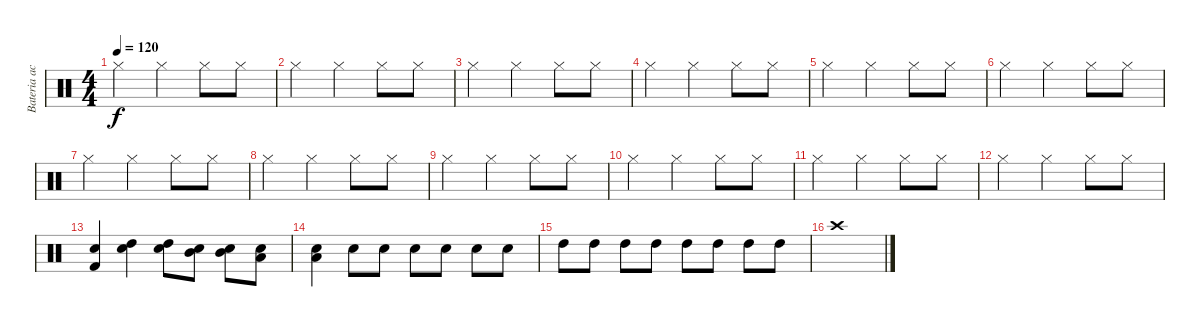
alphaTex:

\track ("Bateria acompanhamento" "Bateria ac") {instrument percussion}
\staff {score}
\articulation defaults
\ts (4 4)
\tempo 120
\clef neutral
\ks c "Hi-Hat (closed)".4{dy f} "Hi-Hat (closed)".4 "Hi-Hat (closed)".8 "Hi-Hat (closed)".8
|
"Hi-Hat (closed)".4 "Hi-Hat (closed)".4 "Hi-Hat (closed)".8 "Hi-Hat (closed)".8 |
"Hi-Hat (closed)".4 "Hi-Hat (closed)".4 "Hi-Hat (closed)".8 "Hi-Hat (closed)".8 |
"Hi-Hat (closed)".4 "Hi-Hat (closed)".4 "Hi-Hat (closed)".8 "Hi-Hat (closed)".8 |
"Hi-Hat (closed)".4 "Hi-Hat (closed)".4 "Hi-Hat (closed)".8 "Hi-Hat (closed)".8 |
"Hi-Hat (closed)".4 "Hi-Hat (closed)".4 "Hi-Hat (closed)".8 "Hi-Hat (closed)".8 |
"Hi-Hat (closed)".4 "Hi-Hat (closed)".4 "Hi-Hat (closed)".8 "Hi-Hat (closed)".8 |
"Hi-Hat (closed)".4 "Hi-Hat (closed)".4 "Hi-Hat (closed)".8 "Hi-Hat (closed)".8 |
"Hi-Hat (closed)".4 "Hi-Hat (closed)".4 "Hi-Hat (closed)".8 "Hi-Hat (closed)".8 |
"Hi-Hat (closed)".4 "Hi-Hat (closed)".4 "Hi-Hat (closed)".8 "Hi-Hat (closed)".8 |
"Hi-Hat (closed)".4 "Hi-Hat (closed)".4 "Hi-Hat (closed)".8 "Hi-Hat (closed)".8 |
"Hi-Hat (closed)".4 "Hi-Hat (closed)".4 "Hi-Hat (closed)".8 "Hi-Hat (closed)".8 |
("Electric Snare (hit)" "Kick (hit) 2").4 ("Electric Snare (hit)" "High Tom (hit)").4 ("Electric Snare (hit)" "High Tom (hit)").8 ("Electric Snare (hit)" "Mid Tom (hit)").8 ("Electric Snare (hit)" "Mid Tom (hit)").8 ("Electric Snare (hit)" "Low Tom (hit)").8 |
("Electric Snare (hit)" "Low Tom (hit)").4 "Electric Snare (hit)".8 "Electric Snare (hit)".8 "Electric Snare (hit)".8 "Electric Snare (hit)".8 "Electric Snare (hit)".8 "Electric Snare (hit)".8 |
"High Tom (hit)".8 "High Tom (hit)".8 "High Tom (hit)".8 "High Tom (hit)".8 "High Tom (hit)".8 "High Tom (hit)".8 "High Tom (hit)".8 "High Tom (hit)".8 |
"Crash high (hit)".1
